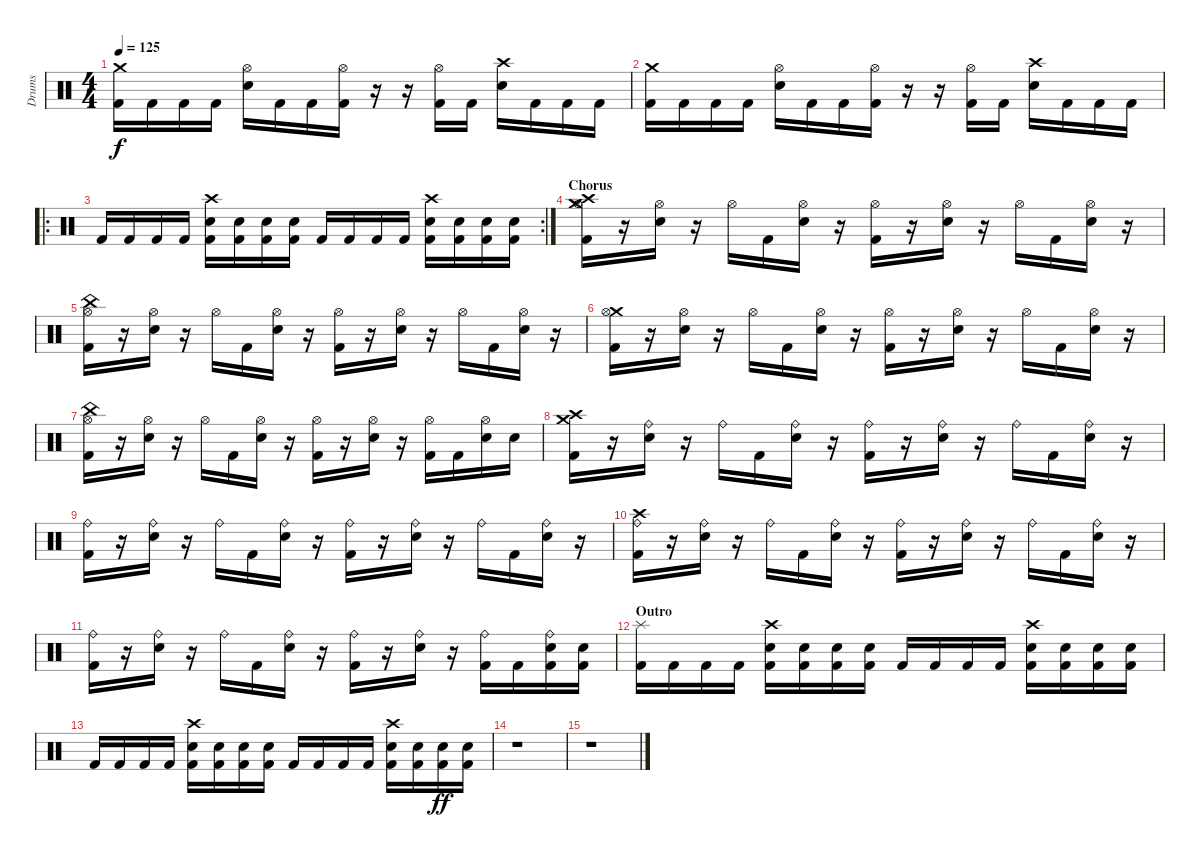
\track ("Drums" "Drums") {instrument percussion}
\staff {score}
\articulation defaults
\ts (4 4)
\tempo 125
\clef neutral
\ks c
("Crash medium (hit)" "Kick (hit) 2").16{dy f} "Kick (hit) 2".16 "Kick (hit) 2".16 "Kick (hit) 2".16 ("Hi-Hat (open)" "Electric Snare (hit)").16 "Kick (hit) 2".16 "Kick (hit) 2".16 ("Hi-Hat (open)" "Kick (hit) 2").16 r.16 r.16 ("Hi-Hat (open)" "Kick (hit) 2").16 "Kick (hit) 2".16 ("Crash high (hit)" "Electric Snare (hit)").16 "Kick (hit) 2".16 "Kick (hit) 2".16 "Kick (hit) 2".16 |
("Crash medium (hit)" "Kick (hit) 2").16 "Kick (hit) 2".16 "Kick (hit) 2".16 "Kick (hit) 2".16 ("Hi-Hat (open)" "Electric Snare (hit)").16 "Kick (hit) 2".16 "Kick (hit) 2".16 ("Hi-Hat (open)" "Kick (hit) 2").16 r.16 r.16 ("Hi-Hat (open)" "Kick (hit) 2").16 "Kick (hit) 2".16 ("Crash high (hit)" "Electric Snare (hit)").16 "Kick (hit) 2".16 "Kick (hit) 2".16 "Kick (hit) 2".16 |
\ro
\rc 2 "Kick (hit) 2".16 "Kick (hit) 2".16 "Kick (hit) 2".16 "Kick (hit) 2".16
("Crash high (hit)" "Electric Snare (hit)" "Kick (hit) 2").16 ("Electric Snare (hit)" "Kick (hit) 2").16 ("Electric Snare (hit)" "Kick (hit) 2").16 ("Electric Snare (hit)" "Kick (hit) 2").16 "Kick (hit) 2".16 "Kick (hit) 2".16 "Kick (hit) 2".16 "Kick (hit) 2".16 ("Crash high (hit)" "Electric Snare (hit)" "Kick (hit) 2").16 ("Electric Snare (hit)" "Kick (hit) 2").16 ("Electric Snare (hit)" "Kick (hit) 2").16 ("Electric Snare (hit)" "Kick (hit) 2").16 |
\section ("" "Chorus")
("Crash high (hit)" "Crash medium (hit)" "Hi-Hat (open)" "Kick (hit) 2").16 r.16 ("Hi-Hat (open)" "Electric Snare (hit)").16 r.16 "Hi-Hat (open)".16 "Kick (hit) 2".16 ("Hi-Hat (open)" "Electric Snare (hit)").16 r.16 ("Hi-Hat (open)" "Kick (hit) 2").16 r.16 ("Hi-Hat (open)" "Electric Snare (hit)").16 r.16 "Hi-Hat (open)".16 "Kick (hit) 2".16 ("Hi-Hat (open)" "Electric Snare (hit)").16 r.16 |
("China (hit)" "Hi-Hat (open)" "Kick (hit) 2").16 r.16 ("Hi-Hat (open)" "Electric Snare (hit)").16 r.16 "Hi-Hat (open)".16 "Kick (hit) 2".16 ("Hi-Hat (open)" "Electric Snare (hit)").16 r.16 ("Hi-Hat (open)" "Kick (hit) 2").16 r.16 ("Hi-Hat (open)" "Electric Snare (hit)").16 r.16 "Hi-Hat (open)".16 "Kick (hit) 2".16 ("Hi-Hat (open)" "Electric Snare (hit)").16 r.16 |
("Crash medium (hit)" "Hi-Hat (open)" "Kick (hit) 2").16 r.16 ("Hi-Hat (open)" "Electric Snare (hit)").16 r.16 "Hi-Hat (open)".16 "Kick (hit) 2".16 ("Hi-Hat (open)" "Electric Snare (hit)").16 r.16 ("Hi-Hat (open)" "Kick (hit) 2").16 r.16 ("Hi-Hat (open)" "Electric Snare (hit)").16 r.16 "Hi-Hat (open)".16 "Kick (hit) 2".16 ("Hi-Hat (open)" "Electric Snare (hit)").16 r.16 |
("China (hit)" "Hi-Hat (open)" "Kick (hit) 2").16 r.16 ("Hi-Hat (open)" "Electric Snare (hit)").16 r.16 "Hi-Hat (open)".16 "Kick (hit) 2".16 ("Hi-Hat (open)" "Electric Snare (hit)").16 r.16 ("Hi-Hat (open)" "Kick (hit) 2").16 r.16 ("Hi-Hat (open)" "Electric Snare (hit)").16 r.16 ("Hi-Hat (open)" "Kick (hit) 2").16 "Kick (hit) 2".16 ("Hi-Hat (open)" "Electric Snare (hit)").16 "Electric Snare (hit)".16 |
("Crash high (hit)" "Crash medium (hit)" "Kick (hit) 2").16 r.16 ("Ride (bell)" "Electric Snare (hit)").16 r.16 "Ride (bell)".16 "Kick (hit) 2".16 ("Ride (bell)" "Electric Snare (hit)").16 r.16 ("Ride (bell)" "Kick (hit) 2").16 r.16 ("Ride (bell)" "Electric Snare (hit)").16 r.16 "Ride (bell)".16 "Kick (hit) 2".16 ("Ride (bell)" "Electric Snare (hit)").16 r.16 |
("Ride (bell)" "Kick (hit) 2").16 r.16 ("Ride (bell)" "Electric Snare (hit)").16 r.16 "Ride (bell)".16 "Kick (hit) 2".16 ("Ride (bell)" "Electric Snare (hit)").16 r.16 ("Ride (bell)" "Kick (hit) 2").16 r.16 ("Ride (bell)" "Electric Snare (hit)").16 r.16 "Ride (bell)".16 "Kick (hit) 2".16 ("Ride (bell)" "Electric Snare (hit)").16 r.16 |
("Crash high (hit)" "Ride (bell)" "Kick (hit) 2").16 r.16 ("Ride (bell)" "Electric Snare (hit)").16 r.16 "Ride (bell)".16 "Kick (hit) 2".16 ("Ride (bell)" "Electric Snare (hit)").16 r.16 ("Ride (bell)" "Kick (hit) 2").16 r.16 ("Ride (bell)" "Electric Snare (hit)").16 r.16 "Ride (bell)".16 "Kick (hit) 2".16 ("Ride (bell)" "Electric Snare (hit)").16 r.16 |
("Ride (bell)" "Kick (hit) 2").16 r.16 ("Ride (bell)" "Electric Snare (hit)").16 r.16 "Ride (bell)".16 "Kick (hit) 2".16 ("Ride (bell)" "Electric Snare (hit)").16 r.16 ("Ride (bell)" "Kick (hit) 2").16 r.16 ("Ride (bell)" "Electric Snare (hit)").16 r.16 ("Ride (bell)" "Kick (hit) 2").16 "Kick (hit) 2".16 ("Ride (bell)" "Electric Snare (hit)" "Kick (hit) 2").16 ("Electric Snare (hit)" "Kick (hit) 2").16 |
\section ("" "Outro")
("Splash (hit)" "Kick (hit) 2").16 "Kick (hit) 2".16 "Kick (hit) 2".16 "Kick (hit) 2".16 ("Crash high (hit)" "Electric Snare (hit)" "Kick (hit) 2").16 ("Electric Snare (hit)" "Kick (hit) 2").16 ("Electric Snare (hit)" "Kick (hit) 2").16 ("Electric Snare (hit)" "Kick (hit) 2").16 "Kick (hit) 2".16 "Kick (hit) 2".16 "Kick (hit) 2".16 "Kick (hit) 2".16 ("Crash high (hit)" "Electric Snare (hit)" "Kick (hit) 2").16 ("Electric Snare (hit)" "Kick (hit) 2").16 ("Electric Snare (hit)" "Kick (hit) 2").16 ("Electric Snare (hit)" "Kick (hit) 2").16 |
"Kick (hit) 2".16 "Kick (hit) 2".16 "Kick (hit) 2".16 "Kick (hit) 2".16 ("Crash high (hit)" "Electric Snare (hit)" "Kick (hit) 2").16 ("Electric Snare (hit)" "Kick (hit) 2").16 ("Electric Snare (hit)" "Kick (hit) 2").16 ("Electric Snare (hit)" "Kick (hit) 2").16 "Kick (hit) 2".16 "Kick (hit) 2".16 "Kick (hit) 2".16 "Kick (hit) 2".16 ("Crash high (hit)" "Electric Snare (hit)" "Kick (hit) 2").16 ("Electric Snare (hit)" "Kick (hit) 2").16 ("Electric Snare (hit)" "Kick (hit) 2").16{dy ff} ("Electric Snare (hit)" "Kick (hit) 2").16 |
r.1 |
r.1
